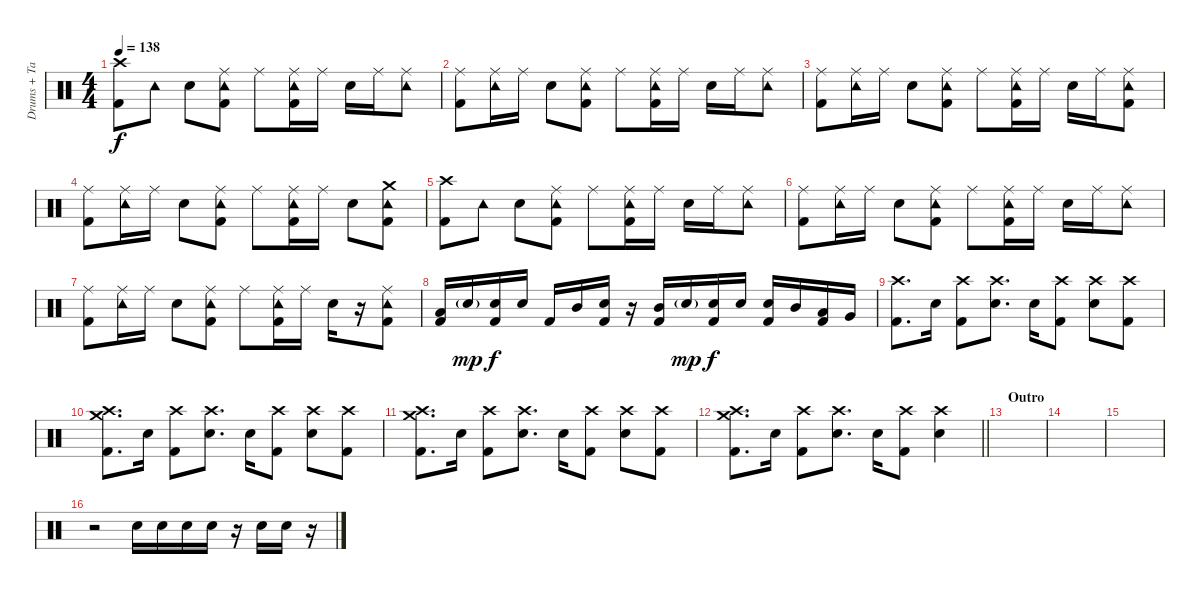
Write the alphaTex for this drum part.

\track ("Drums + Tambourine" "Drums + Ta") {instrument percussion}
\staff {score}
\articulation defaults
\ts (4 4)
\tempo 138
\clef neutral
\ks c
("Crash high (hit)" "Kick (hit) 2").8{dy f} "Tambourine (hit)".8 "Electric Snare (hit)".8 ("Tambourine (hit)" "Ride (middle)" "Kick (hit) 2").8 "Ride (middle)".8 ("Tambourine (hit)" "Ride (middle)" "Kick (hit) 2").16 "Ride (middle)".16 "Electric Snare (hit)".16 "Ride (middle)".16 ("Tambourine (hit)" "Ride (middle)").8 |
("Ride (middle)" "Kick (hit) 2").8 ("Tambourine (hit)" "Ride (middle)").16 "Ride (middle)".16 "Electric Snare (hit)".8 ("Tambourine (hit)" "Ride (middle)" "Kick (hit) 2").8 "Ride (middle)".8 ("Tambourine (hit)" "Ride (middle)" "Kick (hit) 2").16 "Ride (middle)".16 "Electric Snare (hit)".16 "Ride (middle)".16 ("Tambourine (hit)" "Ride (middle)").8 |
("Ride (middle)" "Kick (hit) 2").8 ("Tambourine (hit)" "Ride (middle)").16 "Ride (middle)".16 "Electric Snare (hit)".8 ("Tambourine (hit)" "Ride (middle)" "Kick (hit) 2").8 "Ride (middle)".8 ("Tambourine (hit)" "Ride (middle)" "Kick (hit) 2").16 "Ride (middle)".16 "Electric Snare (hit)".16 "Ride (middle)".16 ("Tambourine (hit)" "Ride (middle)" "Kick (hit) 2").8 |
("Ride (middle)" "Kick (hit) 2").8 ("Tambourine (hit)" "Ride (middle)").16 "Ride (middle)".16 "Electric Snare (hit)".8 ("Tambourine (hit)" "Ride (middle)" "Kick (hit) 2").8 "Ride (middle)".8 ("Tambourine (hit)" "Ride (middle)" "Kick (hit) 2").16 "Ride (middle)".16 "Electric Snare (hit)".8 ("Tambourine (hit)" "Crash medium (hit)" "Kick (hit) 2").8 |
("Crash high (hit)" "Kick (hit) 2").8 "Tambourine (hit)".8 "Electric Snare (hit)".8 ("Tambourine (hit)" "Ride (middle)" "Kick (hit) 2").8 "Ride (middle)".8 ("Tambourine (hit)" "Ride (middle)" "Kick (hit) 2").16 "Ride (middle)".16 "Electric Snare (hit)".16 "Ride (middle)".16 ("Tambourine (hit)" "Ride (middle)").8 |
("Ride (middle)" "Kick (hit) 2").8 ("Tambourine (hit)" "Ride (middle)").16 "Ride (middle)".16 "Electric Snare (hit)".8 ("Tambourine (hit)" "Ride (middle)" "Kick (hit) 2").8 "Ride (middle)".8 ("Tambourine (hit)" "Ride (middle)" "Kick (hit) 2").16 "Ride (middle)".16 "Electric Snare (hit)".16 "Ride (middle)".16 ("Tambourine (hit)" "Ride (middle)").8 |
("Ride (middle)" "Kick (hit) 2").8 ("Tambourine (hit)" "Ride (middle)").16 "Ride (middle)".16 "Electric Snare (hit)".8 ("Tambourine (hit)" "Ride (middle)" "Kick (hit) 2").8 "Ride (middle)".8 ("Tambourine (hit)" "Ride (middle)" "Kick (hit) 2").16 "Ride (middle)".16 "Electric Snare (hit)".16 r.16 ("Tambourine (hit)" "Ride (middle)" "Kick (hit) 2").8 |
("Low Floor Tom (hit)" "Kick (hit) 2").16 "Electric Snare (hit)"{g}.16{dy mp} ("Electric Snare (hit)" "Kick (hit) 2").16{dy f} "Electric Snare (hit)".16 "Kick (hit) 2".16 "Mid Tom (hit)".16 ("Electric Snare (hit)" "Kick (hit) 2").16 r.16 ("Mid Tom (hit)" "Kick (hit) 2").16 "Electric Snare (hit)"{g}.16{dy mp} ("Electric Snare (hit)" "Kick (hit) 2").16{dy f} "Electric Snare (hit)".16 ("Electric Snare (hit)" "Kick (hit) 2").16 "Mid Tom (hit)".16 ("Low Tom (hit)" "Kick (hit) 2").16 "Very Low Tom (hit)".16 |
("Crash high (hit)" "Kick (hit) 2").8{d} "Electric Snare (hit)".16 ("Crash high (hit)" "Kick (hit) 2").8 ("Crash high (hit)" "Electric Snare (hit)").8{d} "Electric Snare (hit)".16 ("Crash high (hit)" "Kick (hit) 2").8 ("Crash high (hit)" "Electric Snare (hit)").8 ("Crash high (hit)" "Kick (hit) 2").8 |
("Crash high (hit)" "Crash medium (hit)" "Kick (hit) 2").8{d} "Electric Snare (hit)".16 ("Crash high (hit)" "Kick (hit) 2").8 ("Crash high (hit)" "Electric Snare (hit)").8{d} "Electric Snare (hit)".16 ("Crash high (hit)" "Kick (hit) 2").8 ("Crash high (hit)" "Electric Snare (hit)").8 ("Crash high (hit)" "Kick (hit) 2").8 |
("Crash high (hit)" "Crash medium (hit)" "Kick (hit) 2").8{d} "Electric Snare (hit)".16 ("Crash high (hit)" "Kick (hit) 2").8 ("Crash high (hit)" "Electric Snare (hit)").8{d} "Electric Snare (hit)".16 ("Crash high (hit)" "Kick (hit) 2").8 ("Crash high (hit)" "Electric Snare (hit)").8 ("Crash high (hit)" "Kick (hit) 2").8 |
\barLineRight lightlight
("Crash high (hit)" "Crash medium (hit)" "Kick (hit) 2").8{d} "Electric Snare (hit)".16 ("Crash high (hit)" "Kick (hit) 2").8 ("Crash high (hit)" "Electric Snare (hit)").8{d} "Electric Snare (hit)".16 ("Crash high (hit)" "Kick (hit) 2").8 ("Crash high (hit)" "Electric Snare (hit)").4 |
\section ("" "Outro")
|
|
|
r.2{volume 14} "Electric Snare (hit)".16 "Electric Snare (hit)".16 "Electric Snare (hit)".16 "Electric Snare (hit)".16 r.16 "Electric Snare (hit)".16 "Electric Snare (hit)".16 r.16
